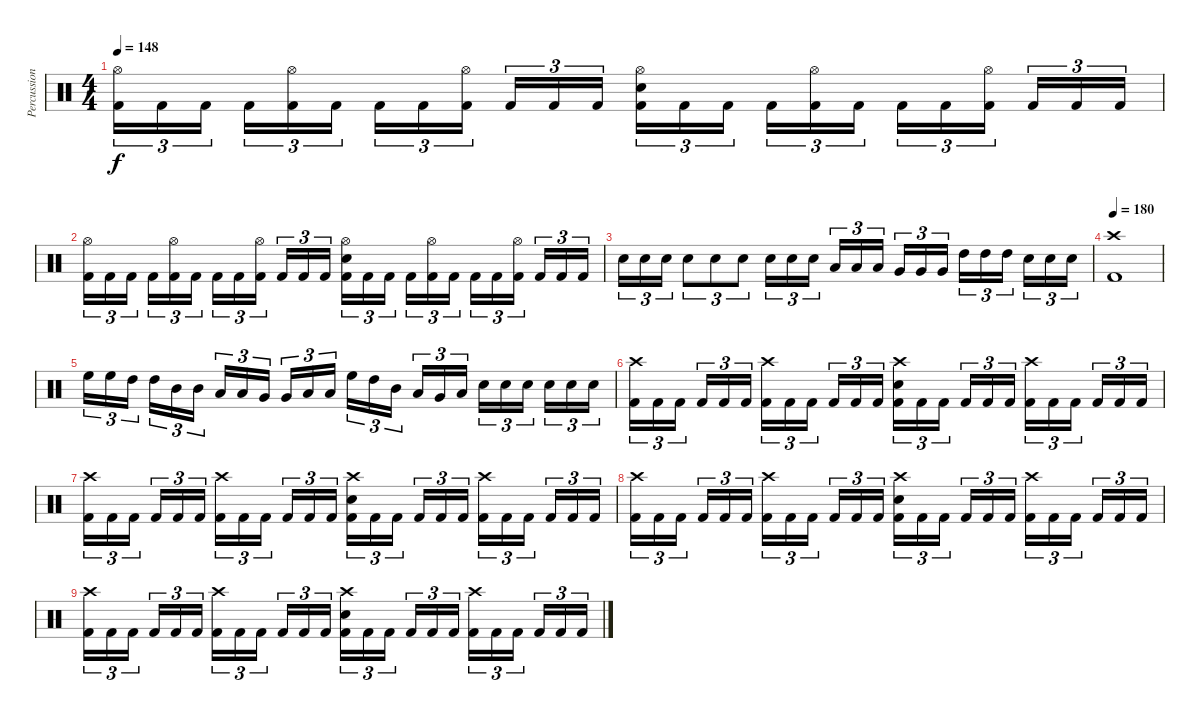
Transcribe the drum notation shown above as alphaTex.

\track ("Percussion" "Percussion") {instrument percussion}
\staff {score}
\articulation defaults
\ts (4 4)
\tempo 148
\clef neutral
\ks c
("Hi-Hat (open)" "Kick (hit) 2").16{tu (3 2) dy f} "Kick (hit) 2".16{tu (3 2)} "Kick (hit) 2".16{tu (3 2)} "Kick (hit) 2".16{tu (3 2)} ("Hi-Hat (open)" "Kick (hit) 2").16{tu (3 2)} "Kick (hit) 2".16{tu (3 2)} "Kick (hit) 2".16{tu (3 2)} "Kick (hit) 2".16{tu (3 2)} ("Hi-Hat (open)" "Kick (hit) 2").16{tu (3 2)} "Kick (hit) 2".16{tu (3 2)} "Kick (hit) 2".16{tu (3 2)} "Kick (hit) 2".16{tu (3 2)} ("Hi-Hat (open)" "Electric Snare (hit)" "Kick (hit) 2").16{tu (3 2)} "Kick (hit) 2".16{tu (3 2)} "Kick (hit) 2".16{tu (3 2)} "Kick (hit) 2".16{tu (3 2)} ("Hi-Hat (open)" "Kick (hit) 2").16{tu (3 2)} "Kick (hit) 2".16{tu (3 2)} "Kick (hit) 2".16{tu (3 2)} "Kick (hit) 2".16{tu (3 2)} ("Hi-Hat (open)" "Kick (hit) 2").16{tu (3 2)} "Kick (hit) 2".16{tu (3 2)} "Kick (hit) 2".16{tu (3 2)} "Kick (hit) 2".16{tu (3 2)} |
("Hi-Hat (open)" "Kick (hit) 2").16{tu (3 2)} "Kick (hit) 2".16{tu (3 2)} "Kick (hit) 2".16{tu (3 2)} "Kick (hit) 2".16{tu (3 2)} ("Hi-Hat (open)" "Kick (hit) 2").16{tu (3 2)} "Kick (hit) 2".16{tu (3 2)} "Kick (hit) 2".16{tu (3 2)} "Kick (hit) 2".16{tu (3 2)} ("Hi-Hat (open)" "Kick (hit) 2").16{tu (3 2)} "Kick (hit) 2".16{tu (3 2)} "Kick (hit) 2".16{tu (3 2)} "Kick (hit) 2".16{tu (3 2)} ("Hi-Hat (open)" "Electric Snare (hit)" "Kick (hit) 2").16{tu (3 2)} "Kick (hit) 2".16{tu (3 2)} "Kick (hit) 2".16{tu (3 2)} "Kick (hit) 2".16{tu (3 2)} ("Hi-Hat (open)" "Kick (hit) 2").16{tu (3 2)} "Kick (hit) 2".16{tu (3 2)} "Kick (hit) 2".16{tu (3 2)} "Kick (hit) 2".16{tu (3 2)} ("Hi-Hat (open)" "Kick (hit) 2").16{tu (3 2)} "Kick (hit) 2".16{tu (3 2)} "Kick (hit) 2".16{tu (3 2)} "Kick (hit) 2".16{tu (3 2)} |
"Electric Snare (hit)".16{tu (3 2)} "Electric Snare (hit)".16{tu (3 2)} "Electric Snare (hit)".16{tu (3 2)} "Electric Snare (hit)".8{tu (3 2)} "Electric Snare (hit)".8{tu (3 2)} "Electric Snare (hit)".8{tu (3 2)} "Electric Snare (hit)".16{tu (3 2)} "Electric Snare (hit)".16{tu (3 2)} "Electric Snare (hit)".16{tu (3 2)} "Low Tom (hit)".16{tu (3 2)} "Low Tom (hit)".16{tu (3 2)} "Low Tom (hit)".16{tu (3 2)} "Very Low Tom (hit)".16{tu (3 2)} "Very Low Tom (hit)".16{tu (3 2)} "Very Low Tom (hit)".16{tu (3 2)} "High Tom (hit)".16{tu (3 2)} "High Tom (hit)".16{tu (3 2)} "High Tom (hit)".16{tu (3 2)} "Electric Snare (hit)".16{tu (3 2)} "Electric Snare (hit)".16{tu (3 2)} "Electric Snare (hit)".16{tu (3 2)} |
\tempo 180
("Crash high (hit)" "Kick (hit) 2").1 |
"High Floor Tom (hit)".16{tu (3 2)} "High Floor Tom (hit)".16{tu (3 2)} "High Tom (hit)".16{tu (3 2)} "High Tom (hit)".16{tu (3 2)} "Mid Tom (hit)".16{tu (3 2)} "Mid Tom (hit)".16{tu (3 2)} "Low Tom (hit)".16{tu (3 2)} "Low Tom (hit)".16{tu (3 2)} "Very Low Tom (hit)".16{tu (3 2)} "Very Low Tom (hit)".16{tu (3 2)} "Low Floor Tom (hit)".16{tu (3 2)} "Low Floor Tom (hit)".16{tu (3 2)} "High Floor Tom (hit)".16{tu (3 2)} "High Tom (hit)".16{tu (3 2)} "Mid Tom (hit)".16{tu (3 2)} "Low Tom (hit)".16{tu (3 2)} "Very Low Tom (hit)".16{tu (3 2)} "Low Floor Tom (hit)".16{tu (3 2)} "Electric Snare (hit)".16{tu (3 2)} "Electric Snare (hit)".16{tu (3 2)} "Electric Snare (hit)".16{tu (3 2)} "Electric Snare (hit)".16{tu (3 2)} "Electric Snare (hit)".16{tu (3 2)} "Electric Snare (hit)".16{tu (3 2)} |
("Crash high (hit)" "Kick (hit) 2").16{tu (3 2)} "Kick (hit) 2".16{tu (3 2)} "Kick (hit) 2".16{tu (3 2)} "Kick (hit) 2".16{tu (3 2)} "Kick (hit) 2".16{tu (3 2)} "Kick (hit) 2".16{tu (3 2)} ("Crash high (hit)" "Kick (hit) 2").16{tu (3 2)} "Kick (hit) 2".16{tu (3 2)} "Kick (hit) 2".16{tu (3 2)} "Kick (hit) 2".16{tu (3 2)} "Kick (hit) 2".16{tu (3 2)} "Kick (hit) 2".16{tu (3 2)} ("Crash high (hit)" "Electric Snare (hit)" "Kick (hit) 2").16{tu (3 2)} "Kick (hit) 2".16{tu (3 2)} "Kick (hit) 2".16{tu (3 2)} "Kick (hit) 2".16{tu (3 2)} "Kick (hit) 2".16{tu (3 2)} "Kick (hit) 2".16{tu (3 2)} ("Crash high (hit)" "Kick (hit) 2").16{tu (3 2)} "Kick (hit) 2".16{tu (3 2)} "Kick (hit) 2".16{tu (3 2)} "Kick (hit) 2".16{tu (3 2)} "Kick (hit) 2".16{tu (3 2)} "Kick (hit) 2".16{tu (3 2)} |
("Crash high (hit)" "Kick (hit) 2").16{tu (3 2)} "Kick (hit) 2".16{tu (3 2)} "Kick (hit) 2".16{tu (3 2)} "Kick (hit) 2".16{tu (3 2)} "Kick (hit) 2".16{tu (3 2)} "Kick (hit) 2".16{tu (3 2)} ("Crash high (hit)" "Kick (hit) 2").16{tu (3 2)} "Kick (hit) 2".16{tu (3 2)} "Kick (hit) 2".16{tu (3 2)} "Kick (hit) 2".16{tu (3 2)} "Kick (hit) 2".16{tu (3 2)} "Kick (hit) 2".16{tu (3 2)} ("Crash high (hit)" "Electric Snare (hit)" "Kick (hit) 2").16{tu (3 2)} "Kick (hit) 2".16{tu (3 2)} "Kick (hit) 2".16{tu (3 2)} "Kick (hit) 2".16{tu (3 2)} "Kick (hit) 2".16{tu (3 2)} "Kick (hit) 2".16{tu (3 2)} ("Crash high (hit)" "Kick (hit) 2").16{tu (3 2)} "Kick (hit) 2".16{tu (3 2)} "Kick (hit) 2".16{tu (3 2)} "Kick (hit) 2".16{tu (3 2)} "Kick (hit) 2".16{tu (3 2)} "Kick (hit) 2".16{tu (3 2)} |
("Crash high (hit)" "Kick (hit) 2").16{tu (3 2)} "Kick (hit) 2".16{tu (3 2)} "Kick (hit) 2".16{tu (3 2)} "Kick (hit) 2".16{tu (3 2)} "Kick (hit) 2".16{tu (3 2)} "Kick (hit) 2".16{tu (3 2)} ("Crash high (hit)" "Kick (hit) 2").16{tu (3 2)} "Kick (hit) 2".16{tu (3 2)} "Kick (hit) 2".16{tu (3 2)} "Kick (hit) 2".16{tu (3 2)} "Kick (hit) 2".16{tu (3 2)} "Kick (hit) 2".16{tu (3 2)} ("Crash high (hit)" "Electric Snare (hit)" "Kick (hit) 2").16{tu (3 2)} "Kick (hit) 2".16{tu (3 2)} "Kick (hit) 2".16{tu (3 2)} "Kick (hit) 2".16{tu (3 2)} "Kick (hit) 2".16{tu (3 2)} "Kick (hit) 2".16{tu (3 2)} ("Crash high (hit)" "Kick (hit) 2").16{tu (3 2)} "Kick (hit) 2".16{tu (3 2)} "Kick (hit) 2".16{tu (3 2)} "Kick (hit) 2".16{tu (3 2)} "Kick (hit) 2".16{tu (3 2)} "Kick (hit) 2".16{tu (3 2)} |
("Crash high (hit)" "Kick (hit) 2").16{tu (3 2)} "Kick (hit) 2".16{tu (3 2)} "Kick (hit) 2".16{tu (3 2)} "Kick (hit) 2".16{tu (3 2)} "Kick (hit) 2".16{tu (3 2)} "Kick (hit) 2".16{tu (3 2)} ("Crash high (hit)" "Kick (hit) 2").16{tu (3 2)} "Kick (hit) 2".16{tu (3 2)} "Kick (hit) 2".16{tu (3 2)} "Kick (hit) 2".16{tu (3 2)} "Kick (hit) 2".16{tu (3 2)} "Kick (hit) 2".16{tu (3 2)} ("Crash high (hit)" "Electric Snare (hit)" "Kick (hit) 2").16{tu (3 2)} "Kick (hit) 2".16{tu (3 2)} "Kick (hit) 2".16{tu (3 2)} "Kick (hit) 2".16{tu (3 2)} "Kick (hit) 2".16{tu (3 2)} "Kick (hit) 2".16{tu (3 2)} ("Crash high (hit)" "Kick (hit) 2").16{tu (3 2)} "Kick (hit) 2".16{tu (3 2)} "Kick (hit) 2".16{tu (3 2)} "Kick (hit) 2".16{tu (3 2)} "Kick (hit) 2".16{tu (3 2)} "Kick (hit) 2".16{tu (3 2)}
